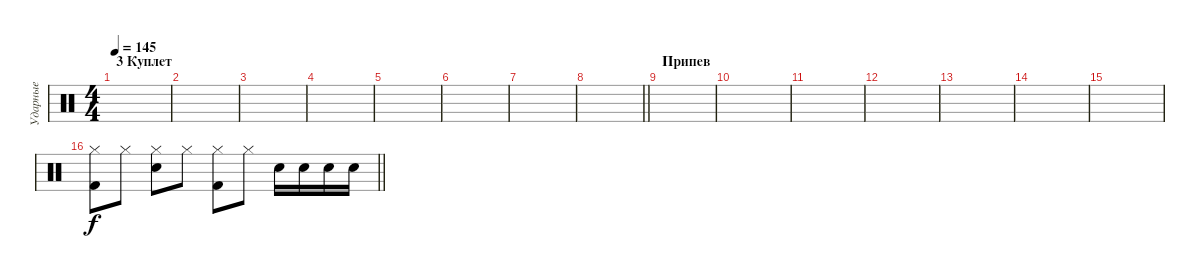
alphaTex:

\track ("Ударные" "Ударные") {instrument percussion}
\staff {score}
\articulation defaults
\ts (4 4)
\section ("" "3 Куплет")
\tempo 145
\clef neutral
\ks c
|
|
|
|
|
|
|
\barLineRight lightlight
|
\section ("" "Припев")
|
|
|
|
|
|
|
\barLineRight lightlight
("Hi-Hat (closed)" "Kick (hit) 2").8 "Hi-Hat (closed)".8 ("Hi-Hat (closed)" "Snare (hit) 2").8 "Hi-Hat (closed)".8 ("Hi-Hat (closed)" "Kick (hit) 2").8 "Hi-Hat (closed)".8 "Snare (hit) 2".16 "Snare (hit) 2".16 "Snare (hit) 2".16 "Snare (hit) 2".16
